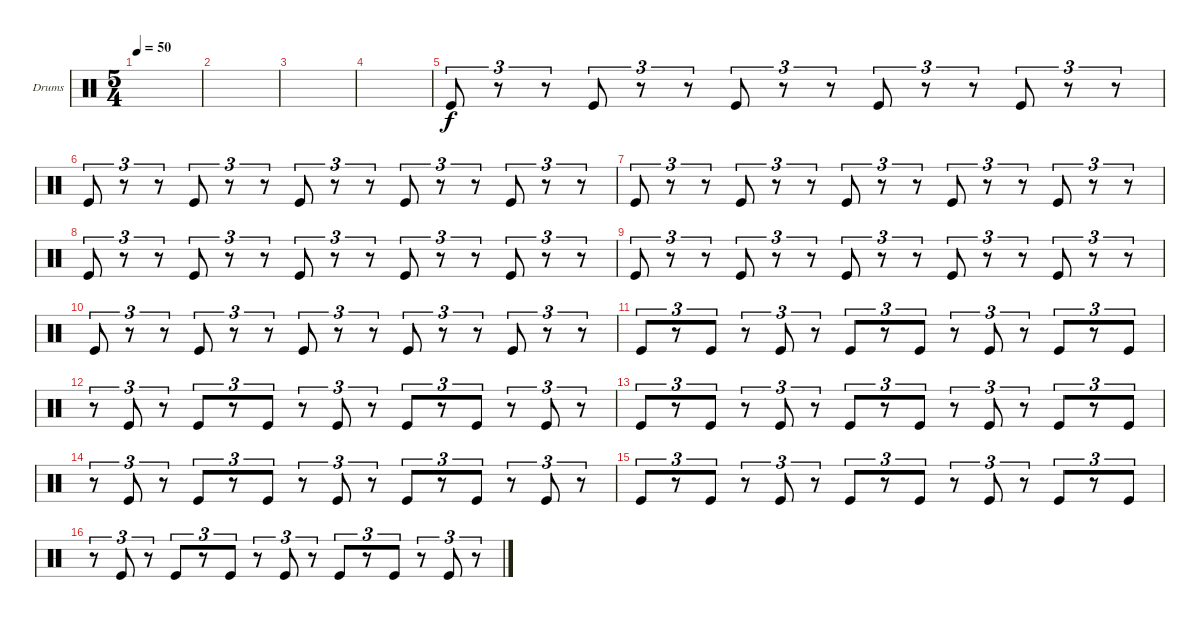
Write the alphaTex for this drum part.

\defaultSystemsLayout 4
\bracketExtendMode groupsimilarinstruments
\firstSystemTrackNameOrientation horizontal
\otherSystemsTrackNameOrientation horizontal
\track ("Drumkit" "Drums") {instrument percussion}
\staff {score}
\articulation defaults
\ts (5 4)
\tempo 50
\clef neutral
\scale
0.472222
\ks c
|
\scale
0.263889 |
\scale
0.263889 |
\scale
0.333333 |
\scale
0.333333 "Kick (hit)".8{tu (3 2)} r.8{tu (3 2)} r.8{tu (3 2)} "Kick (hit)".8{tu (3 2)} r.8{tu (3 2)} r.8{tu (3 2)} "Kick (hit)".8{tu (3 2)} r.8{tu (3 2)} r.8{tu (3 2)} "Kick (hit)".8{tu (3 2)} r.8{tu (3 2)} r.8{tu (3 2)} "Kick (hit)".8{tu (3 2)} r.8{tu (3 2)} r.8{tu (3 2)} |
\scale
0.333333 "Kick (hit)".8{tu (3 2)} r.8{tu (3 2)} r.8{tu (3 2)} "Kick (hit)".8{tu (3 2)} r.8{tu (3 2)} r.8{tu (3 2)} "Kick (hit)".8{tu (3 2)} r.8{tu (3 2)} r.8{tu (3 2)} "Kick (hit)".8{tu (3 2)} r.8{tu (3 2)} r.8{tu (3 2)} "Kick (hit)".8{tu (3 2)} r.8{tu (3 2)} r.8{tu (3 2)} |
\scale
0.333333 "Kick (hit)".8{tu (3 2)} r.8{tu (3 2)} r.8{tu (3 2)} "Kick (hit)".8{tu (3 2)} r.8{tu (3 2)} r.8{tu (3 2)} "Kick (hit)".8{tu (3 2)} r.8{tu (3 2)} r.8{tu (3 2)} "Kick (hit)".8{tu (3 2)} r.8{tu (3 2)} r.8{tu (3 2)} "Kick (hit)".8{tu (3 2)} r.8{tu (3 2)} r.8{tu (3 2)} |
\scale
0.333333 "Kick (hit)".8{tu (3 2)} r.8{tu (3 2)} r.8{tu (3 2)} "Kick (hit)".8{tu (3 2)} r.8{tu (3 2)} r.8{tu (3 2)} "Kick (hit)".8{tu (3 2)} r.8{tu (3 2)} r.8{tu (3 2)} "Kick (hit)".8{tu (3 2)} r.8{tu (3 2)} r.8{tu (3 2)} "Kick (hit)".8{tu (3 2)} r.8{tu (3 2)} r.8{tu (3 2)} |
\scale
0.333333 "Kick (hit)".8{tu (3 2)} r.8{tu (3 2)} r.8{tu (3 2)} "Kick (hit)".8{tu (3 2)} r.8{tu (3 2)} r.8{tu (3 2)} "Kick (hit)".8{tu (3 2)} r.8{tu (3 2)} r.8{tu (3 2)} "Kick (hit)".8{tu (3 2)} r.8{tu (3 2)} r.8{tu (3 2)} "Kick (hit)".8{tu (3 2)} r.8{tu (3 2)} r.8{tu (3 2)} |
\scale
0.333333 "Kick (hit)".8{tu (3 2)} r.8{tu (3 2)} r.8{tu (3 2)} "Kick (hit)".8{tu (3 2)} r.8{tu (3 2)} r.8{tu (3 2)} "Kick (hit)".8{tu (3 2)} r.8{tu (3 2)} r.8{tu (3 2)} "Kick (hit)".8{tu (3 2)} r.8{tu (3 2)} r.8{tu (3 2)} "Kick (hit)".8{tu (3 2)} r.8{tu (3 2)} r.8{tu (3 2)} |
\scale
0.333333 "Kick (hit)".8{tu (3 2)} r.8{tu (3 2)} "Kick (hit)".8{tu (3 2)} r.8{tu (3 2)} "Kick (hit)".8{tu (3 2)} r.8{tu (3 2)} "Kick (hit)".8{tu (3 2)} r.8{tu (3 2)} "Kick (hit)".8{tu (3 2)} r.8{tu (3 2)} "Kick (hit)".8{tu (3 2)} r.8{tu (3 2)} "Kick (hit)".8{tu (3 2)} r.8{tu (3 2)} "Kick (hit)".8{tu (3 2)} |
\scale
0.333333 r.8{tu (3 2)} "Kick (hit)".8{tu (3 2)} r.8{tu (3 2)} "Kick (hit)".8{tu (3 2)} r.8{tu (3 2)} "Kick (hit)".8{tu (3 2)} r.8{tu (3 2)} "Kick (hit)".8{tu (3 2)} r.8{tu (3 2)} "Kick (hit)".8{tu (3 2)} r.8{tu (3 2)} "Kick (hit)".8{tu (3 2)} r.8{tu (3 2)} "Kick (hit)".8{tu (3 2)} r.8{tu (3 2)} |
\scale
0.333333 "Kick (hit)".8{tu (3 2)} r.8{tu (3 2)} "Kick (hit)".8{tu (3 2)} r.8{tu (3 2)} "Kick (hit)".8{tu (3 2)} r.8{tu (3 2)} "Kick (hit)".8{tu (3 2)} r.8{tu (3 2)} "Kick (hit)".8{tu (3 2)} r.8{tu (3 2)} "Kick (hit)".8{tu (3 2)} r.8{tu (3 2)} "Kick (hit)".8{tu (3 2)} r.8{tu (3 2)} "Kick (hit)".8{tu (3 2)} |
\scale
0.333333 r.8{tu (3 2)} "Kick (hit)".8{tu (3 2)} r.8{tu (3 2)} "Kick (hit)".8{tu (3 2)} r.8{tu (3 2)} "Kick (hit)".8{tu (3 2)} r.8{tu (3 2)} "Kick (hit)".8{tu (3 2)} r.8{tu (3 2)} "Kick (hit)".8{tu (3 2)} r.8{tu (3 2)} "Kick (hit)".8{tu (3 2)} r.8{tu (3 2)} "Kick (hit)".8{tu (3 2)} r.8{tu (3 2)} |
\scale
0.333333 "Kick (hit)".8{tu (3 2)} r.8{tu (3 2)} "Kick (hit)".8{tu (3 2)} r.8{tu (3 2)} "Kick (hit)".8{tu (3 2)} r.8{tu (3 2)} "Kick (hit)".8{tu (3 2)} r.8{tu (3 2)} "Kick (hit)".8{tu (3 2)} r.8{tu (3 2)} "Kick (hit)".8{tu (3 2)} r.8{tu (3 2)} "Kick (hit)".8{tu (3 2)} r.8{tu (3 2)} "Kick (hit)".8{tu (3 2)} |
r.8{tu (3 2)} "Kick (hit)".8{tu (3 2)} r.8{tu (3 2)} "Kick (hit)".8{tu (3 2)} r.8{tu (3 2)} "Kick (hit)".8{tu (3 2)} r.8{tu (3 2)} "Kick (hit)".8{tu (3 2)} r.8{tu (3 2)} "Kick (hit)".8{tu (3 2)} r.8{tu (3 2)} "Kick (hit)".8{tu (3 2)} r.8{tu (3 2)} "Kick (hit)".8{tu (3 2)} r.8{tu (3 2)}
